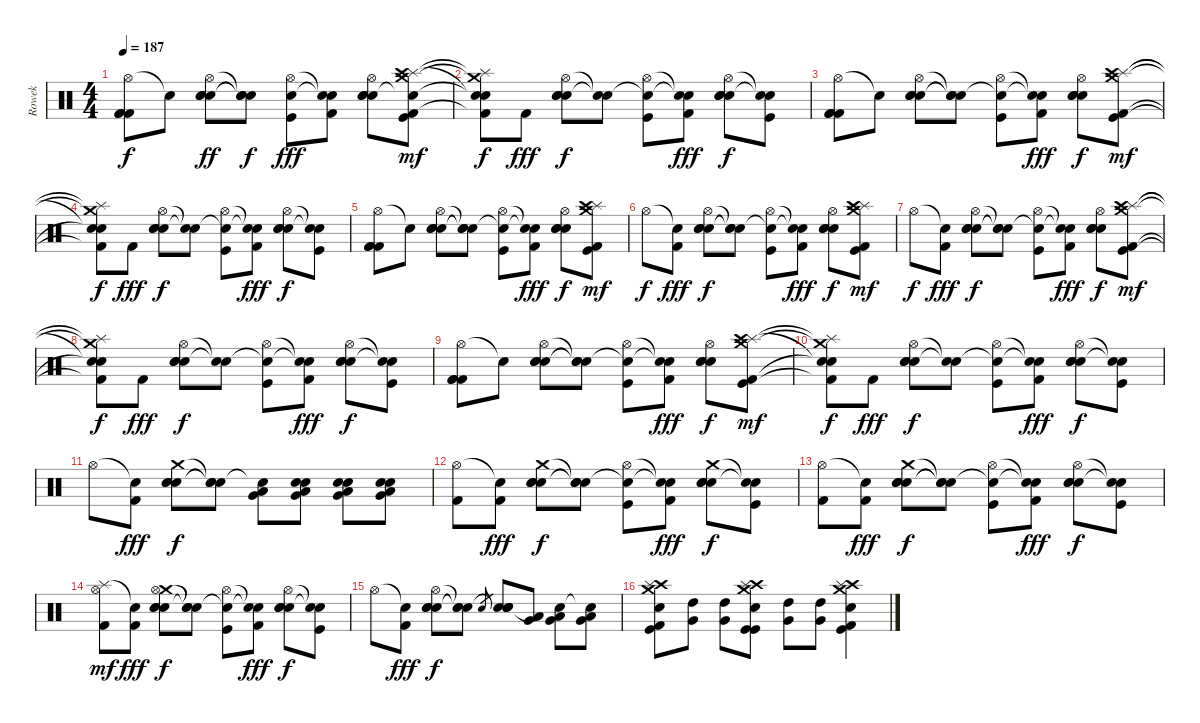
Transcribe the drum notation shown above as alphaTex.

\track ("Rowek" "Rowek") {instrument percussion}
\staff {score}
\articulation defaults
\ts (4 4)
\tempo 187
\clef neutral
\ks c
("Hi-Hat (open)" "Kick (hit) 2" "Kick (hit) 2" "Kick (hit) 2").8{dy f} "Snare (hit)"{t}.8 ("Hi-Hat (open)" "Electric Snare (hit)" "Electric Snare (hit)" "Electric Snare (hit)").8{dy ff} ("Snare (hit)"{t} "Snare (hit)"{t} "Snare (hit)"{t}).8{dy f} ("Hi-Hat (open)" "Electric Snare (hit)" "Kick (hit)").8{dy fff} ("Snare (hit)"{t} "Snare (hit)"{t} "Kick (hit) 2").8 ("Hi-Hat (open)" "Electric Snare (hit)" "Electric Snare (hit)" "Electric Snare (hit)").8 ("Crash medium (hit)" "Splash (hit)" "Snare (hit)"{t} "Crash high (hit)" "Kick (hit) 2" "Kick (hit)").8{dy mf} |
("Crash medium (hit)"{t} "Splash (hit)"{t} "Snare (hit)"{t} "Snare (hit)"{t} "Kick (hit) 2"{t}).8{dy f} "Kick (hit) 2".8{dy fff} ("Hi-Hat (open)" "Electric Snare (hit)" "Electric Snare (hit)" "Electric Snare (hit)").8{dy f} ("Snare (hit)"{t} "Snare (hit)"{t}).8 ("Hi-Hat (open)" "Snare (hit)"{t} "Kick (hit)").8 ("Snare (hit)"{t} "Snare (hit)"{t} "Kick (hit) 2").8{dy fff} ("Hi-Hat (open)" "Electric Snare (hit)" "Electric Snare (hit)" "Electric Snare (hit)").8{dy f} ("Snare (hit)"{t} "Snare (hit)"{t} "Kick (hit)").8 |
("Hi-Hat (open)" "Kick (hit) 2" "Kick (hit) 2" "Kick (hit) 2").8 "Snare (hit)"{t}.8 ("Hi-Hat (open)" "Electric Snare (hit)" "Electric Snare (hit)" "Electric Snare (hit)").8 ("Snare (hit)"{t} "Snare (hit)"{t} "Snare (hit)"{t}).8 ("Hi-Hat (open)" "Snare (hit)"{t} "Kick (hit)").8 ("Snare (hit)"{t} "Snare (hit)"{t} "Kick (hit) 2").8{dy fff} ("Hi-Hat (open)" "Electric Snare (hit)" "Electric Snare (hit)" "Electric Snare (hit)").8{dy f} ("Crash medium (hit)" "Splash (hit)" "Crash high (hit)" "Kick (hit) 2" "Kick (hit)").8{dy mf} |
("Crash medium (hit)"{t} "Splash (hit)"{t} "Snare (hit)"{t} "Snare (hit)"{t} "Kick (hit) 2"{t}).8{dy f} "Kick (hit) 2".8{dy fff} ("Hi-Hat (open)" "Electric Snare (hit)" "Electric Snare (hit)" "Electric Snare (hit)").8{dy f} ("Snare (hit)"{t} "Snare (hit)"{t}).8 ("Hi-Hat (open)" "Snare (hit)"{t} "Kick (hit)").8 ("Snare (hit)"{t} "Snare (hit)"{t} "Kick (hit) 2").8{dy fff} ("Hi-Hat (open)" "Electric Snare (hit)" "Electric Snare (hit)" "Electric Snare (hit)").8{dy f} ("Snare (hit)"{t} "Snare (hit)"{t} "Kick (hit)").8 |
("Hi-Hat (open)" "Kick (hit) 2" "Kick (hit) 2" "Kick (hit) 2").8 "Snare (hit)"{t}.8 ("Hi-Hat (open)" "Electric Snare (hit)" "Electric Snare (hit)" "Electric Snare (hit)").8 ("Snare (hit)"{t} "Snare (hit)"{t} "Snare (hit)"{t}).8 ("Hi-Hat (open)" "Snare (hit)"{t} "Kick (hit)").8 ("Snare (hit)"{t} "Snare (hit)"{t} "Kick (hit) 2").8{dy fff} ("Hi-Hat (open)" "Electric Snare (hit)" "Electric Snare (hit)" "Electric Snare (hit)").8{dy f} ("Crash medium (hit)" "Splash (hit)" "Crash high (hit)" "Kick (hit) 2" "Kick (hit)").8{dy mf} |
"Hi-Hat (open)".8{dy f} ("Snare (hit)"{t} "Kick (hit) 2").8{dy fff} ("Hi-Hat (open)" "Electric Snare (hit)" "Electric Snare (hit)" "Electric Snare (hit)").8{dy f} ("Snare (hit)"{t} "Snare (hit)"{t} "Snare (hit)"{t}).8 ("Hi-Hat (open)" "Snare (hit)"{t} "Kick (hit)").8 ("Snare (hit)"{t} "Snare (hit)"{t} "Kick (hit) 2").8{dy fff} ("Hi-Hat (open)" "Electric Snare (hit)" "Electric Snare (hit)" "Electric Snare (hit)").8{dy f} ("Crash medium (hit)" "Splash (hit)" "Crash high (hit)" "Kick (hit) 2" "Kick (hit)").8{dy mf} |
"Hi-Hat (open)".8{dy f} ("Snare (hit)"{t} "Kick (hit) 2").8{dy fff} ("Hi-Hat (open)" "Electric Snare (hit)" "Electric Snare (hit)" "Electric Snare (hit)").8{dy f} ("Snare (hit)"{t} "Snare (hit)"{t} "Snare (hit)"{t}).8 ("Hi-Hat (open)" "Snare (hit)"{t} "Kick (hit)").8 ("Snare (hit)"{t} "Snare (hit)"{t} "Kick (hit) 2").8{dy fff} ("Hi-Hat (open)" "Electric Snare (hit)" "Electric Snare (hit)" "Electric Snare (hit)").8{dy f} ("Crash medium (hit)" "Splash (hit)" "Crash high (hit)" "Kick (hit) 2" "Kick (hit)").8{dy mf} |
("Crash medium (hit)"{t} "Splash (hit)"{t} "Snare (hit)"{t} "Snare (hit)"{t} "Kick (hit) 2"{t}).8{dy f} "Kick (hit) 2".8{dy fff} ("Hi-Hat (open)" "Electric Snare (hit)" "Electric Snare (hit)" "Electric Snare (hit)").8{dy f} ("Snare (hit)"{t} "Snare (hit)"{t}).8 ("Hi-Hat (open)" "Snare (hit)"{t} "Kick (hit)").8 ("Snare (hit)"{t} "Snare (hit)"{t} "Kick (hit) 2").8{dy fff} ("Hi-Hat (open)" "Electric Snare (hit)" "Electric Snare (hit)" "Electric Snare (hit)").8{dy f} ("Snare (hit)"{t} "Snare (hit)"{t} "Kick (hit)").8 |
("Hi-Hat (open)" "Kick (hit) 2" "Kick (hit) 2" "Kick (hit) 2").8 "Snare (hit)"{t}.8 ("Hi-Hat (open)" "Electric Snare (hit)" "Electric Snare (hit)" "Electric Snare (hit)").8 ("Snare (hit)"{t} "Snare (hit)"{t} "Snare (hit)"{t}).8 ("Hi-Hat (open)" "Snare (hit)"{t} "Kick (hit)").8 ("Snare (hit)"{t} "Snare (hit)"{t} "Kick (hit) 2").8{dy fff} ("Hi-Hat (open)" "Electric Snare (hit)" "Electric Snare (hit)" "Electric Snare (hit)").8{dy f} ("Crash medium (hit)" "Splash (hit)" "Crash high (hit)" "Kick (hit) 2" "Kick (hit)").8{dy mf} |
("Crash medium (hit)"{t} "Splash (hit)"{t} "Snare (hit)"{t} "Snare (hit)"{t} "Kick (hit) 2"{t}).8{dy f} "Kick (hit) 2".8{dy fff} ("Hi-Hat (open)" "Electric Snare (hit)" "Electric Snare (hit)" "Electric Snare (hit)").8{dy f} ("Snare (hit)"{t} "Snare (hit)"{t}).8 ("Hi-Hat (open)" "Snare (hit)"{t} "Kick (hit)").8 ("Snare (hit)"{t} "Snare (hit)"{t} "Kick (hit) 2").8{dy fff} ("Hi-Hat (open)" "Electric Snare (hit)" "Electric Snare (hit)" "Electric Snare (hit)").8{dy f} ("Snare (hit)"{t} "Snare (hit)"{t} "Kick (hit)").8 |
"Hi-Hat (open)".8 ("Snare (hit)"{t} "Kick (hit) 2").8{dy fff} ("Crash medium (hit)" "Electric Snare (hit)" "Electric Snare (hit)" "Electric Snare (hit)").8{dy f} ("Snare (hit)"{t} "Snare (hit)"{t} "Snare (hit)"{t}).8 ("Snare (hit)"{t} "Very Low Tom (hit)" "Low Tom (hit)").8 ("Electric Snare (hit)" "Electric Snare (hit)" "Very Low Tom (hit)" "Low Tom (hit)").8 ("Electric Snare (hit)" "Electric Snare (hit)" "Very Low Tom (hit)" "Low Tom (hit)").8 ("Electric Snare (hit)" "Electric Snare (hit)" "Very Low Tom (hit)" "Low Tom (hit)").8 |
("Hi-Hat (open)" "Kick (hit) 2").8 ("Snare (hit)"{t} "Kick (hit) 2").8{dy fff} ("Crash medium (hit)" "Electric Snare (hit)" "Electric Snare (hit)" "Electric Snare (hit)").8{dy f} ("Snare (hit)"{t} "Snare (hit)"{t} "Snare (hit)"{t}).8 ("Hi-Hat (open)" "Snare (hit)"{t} "Kick (hit)").8 ("Snare (hit)"{t} "Snare (hit)"{t} "Kick (hit) 2").8{dy fff} ("Crash medium (hit)" "Electric Snare (hit)" "Electric Snare (hit)" "Electric Snare (hit)").8{dy f} ("Snare (hit)"{t} "Snare (hit)"{t} "Kick (hit)").8 |
("Hi-Hat (open)" "Kick (hit) 2").8 ("Snare (hit)"{t} "Kick (hit) 2").8{dy fff} ("Crash medium (hit)" "Electric Snare (hit)" "Electric Snare (hit)" "Electric Snare (hit)").8{dy f} ("Snare (hit)"{t} "Snare (hit)"{t} "Snare (hit)"{t}).8 ("Hi-Hat (open)" "Snare (hit)"{t} "Kick (hit)").8 ("Snare (hit)"{t} "Snare (hit)"{t} "Kick (hit) 2").8{dy fff} ("Hi-Hat (open)" "Electric Snare (hit)" "Electric Snare (hit)" "Electric Snare (hit)").8{dy f} ("Snare (hit)"{t} "Snare (hit)"{t} "Kick (hit)").8 |
("Splash (hit)" "Hi-Hat (open)" "Kick (hit) 2").8{dy mf} ("Snare (hit)"{t} "Kick (hit) 2").8{dy fff} ("Crash medium (hit)" "Hi-Hat (open)" "Electric Snare (hit)" "Electric Snare (hit)" "Electric Snare (hit)").8{dy f} ("Snare (hit)"{t} "Snare (hit)"{t} "Snare (hit)"{t}).8 ("Hi-Hat (open)" "Snare (hit)"{t} "Kick (hit)").8 ("Snare (hit)"{t} "Snare (hit)"{t} "Kick (hit) 2").8{dy fff} ("Hi-Hat (open)" "Electric Snare (hit)" "Electric Snare (hit)" "Electric Snare (hit)").8{dy f} ("Snare (hit)"{t} "Snare (hit)"{t} "Kick (hit)").8 |
"Hi-Hat (open)".8 ("Snare (hit)"{t} "Kick (hit) 2").8{dy fff} ("Hi-Hat (open)" "Electric Snare (hit)" "Electric Snare (hit)" "Electric Snare (hit)").8{dy f} ("Snare (hit)"{t} "Snare (hit)"{t} "Snare (hit)"{t}).8 "Electric Snare (hit)".8{gr} ("Electric Snare (hit)" "Snare (hit)"{t} "Electric Snare (hit)" "Electric Snare (hit)").8 ("Low Tom (hit)" "Very Low Tom (hit)").8 ("Low Tom (hit)" "Very Low Tom (hit)" "Snare (hit)"{t}).8 ("Low Tom (hit)" "Very Low Tom (hit)" "Snare (hit)"{t}).8 |
("Crash medium (hit)" "Crash high (hit)" "Splash (hit)" "Electric Snare (hit)" "Kick (hit)" "Kick (hit) 2").8{balance 16} ("Very Low Tom (hit)" "High Tom (hit)").8 ("Very Low Tom (hit)" "High Tom (hit)").8 ("Crash high (hit)" "Crash medium (hit)" "Splash (hit)" "Electric Snare (hit)" "Kick (hit)" "Kick (hit)").8{balance 0} ("Very Low Tom (hit)" "High Tom (hit)").8 ("Very Low Tom (hit)" "High Tom (hit)").8 ("Crash medium (hit)" "Crash high (hit)" "Splash (hit)" "Electric Snare (hit)" "Kick (hit)" "Kick (hit) 2").4{balance 0}
